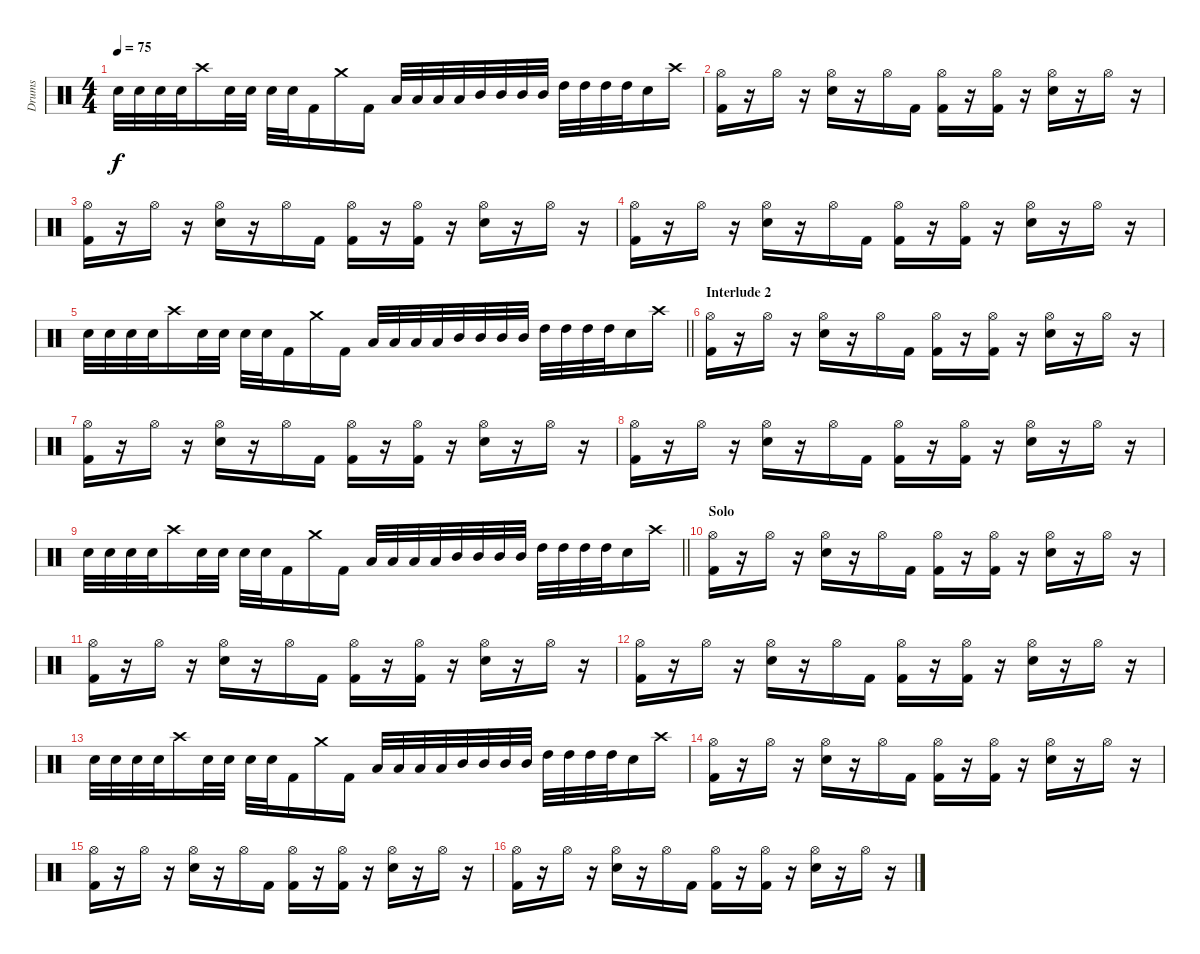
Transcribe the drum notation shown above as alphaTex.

\track ("Drums" "Drums") {instrument percussion}
\staff {score}
\articulation defaults
\ts (4 4)
\tempo 75
\clef neutral
\ks c "Electric Snare (hit)".32{dy f} "Electric Snare (hit)".32 "Electric Snare (hit)".32 "Electric Snare (hit)".32 "Crash high (hit)".16 "Electric Snare (hit)".32 "Electric Snare (hit)".32 "Electric Snare (hit)".32 "Electric Snare (hit)".32 "Kick (hit) 2".16 "Crash medium (hit)".16 "Kick (hit) 2".16 "Low Tom (hit)".32 "Low Tom (hit)".32 "Low Tom (hit)".32 "Low Tom (hit)".32 "Mid Tom (hit)".32 "Mid Tom (hit)".32 "Mid Tom (hit)".32 "Mid Tom (hit)".32 "High Tom (hit)".32 "High Tom (hit)".32 "High Tom (hit)".32 "High Tom (hit)".32 "Electric Snare (hit)".16 "Crash high (hit)".16
|
("Hi-Hat (open)" "Kick (hit) 2").16 r.16 "Hi-Hat (open)".16 r.16 ("Hi-Hat (open)" "Electric Snare (hit)").16 r.16 "Hi-Hat (open)".16 "Kick (hit) 2".16 ("Hi-Hat (open)" "Kick (hit) 2").16 r.16 ("Hi-Hat (open)" "Kick (hit) 2").16 r.16 ("Hi-Hat (open)" "Electric Snare (hit)").16 r.16 "Hi-Hat (open)".16 r.16 |
("Hi-Hat (open)" "Kick (hit) 2").16 r.16 "Hi-Hat (open)".16 r.16 ("Hi-Hat (open)" "Electric Snare (hit)").16 r.16 "Hi-Hat (open)".16 "Kick (hit) 2".16 ("Hi-Hat (open)" "Kick (hit) 2").16 r.16 ("Hi-Hat (open)" "Kick (hit) 2").16 r.16 ("Hi-Hat (open)" "Electric Snare (hit)").16 r.16 "Hi-Hat (open)".16 r.16 |
("Hi-Hat (open)" "Kick (hit) 2").16 r.16 "Hi-Hat (open)".16 r.16 ("Hi-Hat (open)" "Electric Snare (hit)").16 r.16 "Hi-Hat (open)".16 "Kick (hit) 2".16 ("Hi-Hat (open)" "Kick (hit) 2").16 r.16 ("Hi-Hat (open)" "Kick (hit) 2").16 r.16 ("Hi-Hat (open)" "Electric Snare (hit)").16 r.16 "Hi-Hat (open)".16 r.16 |
\barLineRight lightlight "Electric Snare (hit)".32 "Electric Snare (hit)".32 "Electric Snare (hit)".32 "Electric Snare (hit)".32 "Crash high (hit)".16 "Electric Snare (hit)".32 "Electric Snare (hit)".32 "Electric Snare (hit)".32 "Electric Snare (hit)".32 "Kick (hit) 2".16 "Crash medium (hit)".16 "Kick (hit) 2".16 "Low Tom (hit)".32 "Low Tom (hit)".32 "Low Tom (hit)".32 "Low Tom (hit)".32 "Mid Tom (hit)".32 "Mid Tom (hit)".32 "Mid Tom (hit)".32 "Mid Tom (hit)".32 "High Tom (hit)".32 "High Tom (hit)".32 "High Tom (hit)".32 "High Tom (hit)".32 "Electric Snare (hit)".16 "Crash high (hit)".16
|
\section ("" "Interlude 2")
("Hi-Hat (open)" "Kick (hit) 2").16 r.16 "Hi-Hat (open)".16 r.16 ("Hi-Hat (open)" "Electric Snare (hit)").16 r.16 "Hi-Hat (open)".16 "Kick (hit) 2".16 ("Hi-Hat (open)" "Kick (hit) 2").16 r.16 ("Hi-Hat (open)" "Kick (hit) 2").16 r.16 ("Hi-Hat (open)" "Electric Snare (hit)").16 r.16 "Hi-Hat (open)".16 r.16 |
("Hi-Hat (open)" "Kick (hit) 2").16 r.16 "Hi-Hat (open)".16 r.16 ("Hi-Hat (open)" "Electric Snare (hit)").16 r.16 "Hi-Hat (open)".16 "Kick (hit) 2".16 ("Hi-Hat (open)" "Kick (hit) 2").16 r.16 ("Hi-Hat (open)" "Kick (hit) 2").16 r.16 ("Hi-Hat (open)" "Electric Snare (hit)").16 r.16 "Hi-Hat (open)".16 r.16 |
("Hi-Hat (open)" "Kick (hit) 2").16 r.16 "Hi-Hat (open)".16 r.16 ("Hi-Hat (open)" "Electric Snare (hit)").16 r.16 "Hi-Hat (open)".16 "Kick (hit) 2".16 ("Hi-Hat (open)" "Kick (hit) 2").16 r.16 ("Hi-Hat (open)" "Kick (hit) 2").16 r.16 ("Hi-Hat (open)" "Electric Snare (hit)").16 r.16 "Hi-Hat (open)".16 r.16 |
\barLineRight lightlight "Electric Snare (hit)".32 "Electric Snare (hit)".32 "Electric Snare (hit)".32 "Electric Snare (hit)".32 "Crash high (hit)".16 "Electric Snare (hit)".32 "Electric Snare (hit)".32 "Electric Snare (hit)".32 "Electric Snare (hit)".32 "Kick (hit) 2".16 "Crash medium (hit)".16 "Kick (hit) 2".16 "Low Tom (hit)".32 "Low Tom (hit)".32 "Low Tom (hit)".32 "Low Tom (hit)".32 "Mid Tom (hit)".32 "Mid Tom (hit)".32 "Mid Tom (hit)".32 "Mid Tom (hit)".32 "High Tom (hit)".32 "High Tom (hit)".32 "High Tom (hit)".32 "High Tom (hit)".32 "Electric Snare (hit)".16 "Crash high (hit)".16
|
\section ("" "Solo")
("Hi-Hat (open)" "Kick (hit) 2").16 r.16 "Hi-Hat (open)".16 r.16 ("Hi-Hat (open)" "Electric Snare (hit)").16 r.16 "Hi-Hat (open)".16 "Kick (hit) 2".16 ("Hi-Hat (open)" "Kick (hit) 2").16 r.16 ("Hi-Hat (open)" "Kick (hit) 2").16 r.16 ("Hi-Hat (open)" "Electric Snare (hit)").16 r.16 "Hi-Hat (open)".16 r.16 |
("Hi-Hat (open)" "Kick (hit) 2").16 r.16 "Hi-Hat (open)".16 r.16 ("Hi-Hat (open)" "Electric Snare (hit)").16 r.16 "Hi-Hat (open)".16 "Kick (hit) 2".16 ("Hi-Hat (open)" "Kick (hit) 2").16 r.16 ("Hi-Hat (open)" "Kick (hit) 2").16 r.16 ("Hi-Hat (open)" "Electric Snare (hit)").16 r.16 "Hi-Hat (open)".16 r.16 |
("Hi-Hat (open)" "Kick (hit) 2").16 r.16 "Hi-Hat (open)".16 r.16 ("Hi-Hat (open)" "Electric Snare (hit)").16 r.16 "Hi-Hat (open)".16 "Kick (hit) 2".16 ("Hi-Hat (open)" "Kick (hit) 2").16 r.16 ("Hi-Hat (open)" "Kick (hit) 2").16 r.16 ("Hi-Hat (open)" "Electric Snare (hit)").16 r.16 "Hi-Hat (open)".16 r.16 |
"Electric Snare (hit)".32 "Electric Snare (hit)".32 "Electric Snare (hit)".32 "Electric Snare (hit)".32 "Crash high (hit)".16 "Electric Snare (hit)".32 "Electric Snare (hit)".32 "Electric Snare (hit)".32 "Electric Snare (hit)".32 "Kick (hit) 2".16 "Crash medium (hit)".16 "Kick (hit) 2".16 "Low Tom (hit)".32 "Low Tom (hit)".32 "Low Tom (hit)".32 "Low Tom (hit)".32 "Mid Tom (hit)".32 "Mid Tom (hit)".32 "Mid Tom (hit)".32 "Mid Tom (hit)".32 "High Tom (hit)".32 "High Tom (hit)".32 "High Tom (hit)".32 "High Tom (hit)".32 "Electric Snare (hit)".16 "Crash high (hit)".16 |
("Hi-Hat (open)" "Kick (hit) 2").16 r.16 "Hi-Hat (open)".16 r.16 ("Hi-Hat (open)" "Electric Snare (hit)").16 r.16 "Hi-Hat (open)".16 "Kick (hit) 2".16 ("Hi-Hat (open)" "Kick (hit) 2").16 r.16 ("Hi-Hat (open)" "Kick (hit) 2").16 r.16 ("Hi-Hat (open)" "Electric Snare (hit)").16 r.16 "Hi-Hat (open)".16 r.16 |
("Hi-Hat (open)" "Kick (hit) 2").16 r.16 "Hi-Hat (open)".16 r.16 ("Hi-Hat (open)" "Electric Snare (hit)").16 r.16 "Hi-Hat (open)".16 "Kick (hit) 2".16 ("Hi-Hat (open)" "Kick (hit) 2").16 r.16 ("Hi-Hat (open)" "Kick (hit) 2").16 r.16 ("Hi-Hat (open)" "Electric Snare (hit)").16 r.16 "Hi-Hat (open)".16 r.16 |
("Hi-Hat (open)" "Kick (hit) 2").16 r.16 "Hi-Hat (open)".16 r.16 ("Hi-Hat (open)" "Electric Snare (hit)").16 r.16 "Hi-Hat (open)".16 "Kick (hit) 2".16 ("Hi-Hat (open)" "Kick (hit) 2").16 r.16 ("Hi-Hat (open)" "Kick (hit) 2").16 r.16 ("Hi-Hat (open)" "Electric Snare (hit)").16 r.16 "Hi-Hat (open)".16 r.16
